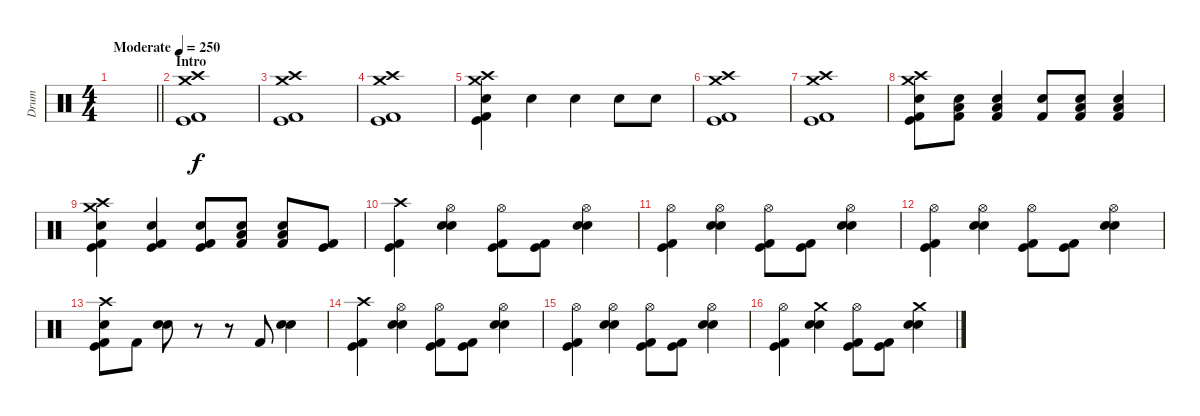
\track ("Drum" "Drum") {instrument percussion}
\staff {score}
\articulation defaults
\ts (4 4)
\tempo (250 "Moderate")
\clef neutral
\barLineRight lightlight
\ks c
|
\section ("" "Intro")
("Crash high (hit)" "Crash medium (hit)" "Kick (hit) 2" "Kick (hit)").1 |
("Crash high (hit)" "Crash medium (hit)" "Kick (hit) 2" "Kick (hit)").1 |
("Crash high (hit)" "Crash medium (hit)" "Kick (hit) 2" "Kick (hit)").1 |
("Crash high (hit)" "Crash medium (hit)" "Electric Snare (hit)" "Kick (hit) 2" "Kick (hit)").4 "Electric Snare (hit)".4 "Electric Snare (hit)".4 "Electric Snare (hit)".8 "Electric Snare (hit)".8 |
("Crash high (hit)" "Crash medium (hit)" "Kick (hit) 2" "Kick (hit)").1 |
("Crash high (hit)" "Crash medium (hit)" "Kick (hit) 2" "Kick (hit)").1 |
("Crash high (hit)" "Crash medium (hit)" "Electric Snare (hit)" "Kick (hit) 2" "Kick (hit)").8 ("Snare (hit)" "Low Floor Tom (hit)" "Kick (hit) 2").8 ("Snare (hit)" "Low Floor Tom (hit)" "Kick (hit) 2").4 ("Electric Snare (hit)" "Kick (hit) 2").8 ("Snare (hit)" "Low Floor Tom (hit)" "Kick (hit) 2").8 ("Snare (hit)" "Low Floor Tom (hit)" "Kick (hit) 2").4 |
("Crash high (hit)" "Crash medium (hit)" "Electric Snare (hit)" "Kick (hit) 2" "Kick (hit)").4 ("Electric Snare (hit)" "Kick (hit) 2" "Kick (hit)").4 ("Electric Snare (hit)" "Kick (hit) 2" "Kick (hit)").8 ("Snare (hit)" "Low Floor Tom (hit)" "Kick (hit) 2").8 ("Snare (hit)" "Low Floor Tom (hit)" "Kick (hit) 2").8 ("Kick (hit) 2" "Kick (hit)").8 |
("Crash high (hit)" "Kick (hit) 2" "Kick (hit)").4 ("Hi-Hat (open)" "Electric Snare (hit)" "Snare (hit) 2").4 ("Hi-Hat (open)" "Kick (hit) 2" "Kick (hit)").8 ("Kick (hit) 2" "Kick (hit)").8 ("Hi-Hat (open)" "Electric Snare (hit)" "Snare (hit) 2").4 |
("Hi-Hat (open)" "Kick (hit) 2" "Kick (hit)").4 ("Hi-Hat (open)" "Electric Snare (hit)" "Snare (hit) 2").4 ("Hi-Hat (open)" "Kick (hit) 2" "Kick (hit)").8 ("Kick (hit) 2" "Kick (hit)").8 ("Hi-Hat (open)" "Electric Snare (hit)" "Snare (hit) 2").4 |
("Hi-Hat (open)" "Kick (hit) 2" "Kick (hit)").4 ("Hi-Hat (open)" "Electric Snare (hit)" "Snare (hit) 2").4 ("Hi-Hat (open)" "Kick (hit) 2" "Kick (hit)").8 ("Kick (hit) 2" "Kick (hit)").8 ("Hi-Hat (open)" "Electric Snare (hit)" "Snare (hit) 2").4 |
("Crash high (hit)" "Electric Snare (hit)" "Kick (hit) 2" "Kick (hit)").8 "Kick (hit) 2".8 ("Electric Snare (hit)" "Snare (hit) 2").8 r.8 r.8 "Kick (hit) 2".8 ("Electric Snare (hit)" "Snare (hit) 2").4 |
("Crash high (hit)" "Kick (hit) 2" "Kick (hit)").4 ("Hi-Hat (open)" "Electric Snare (hit)" "Snare (hit) 2").4 ("Hi-Hat (open)" "Kick (hit) 2" "Kick (hit)").8 ("Kick (hit) 2" "Kick (hit)").8 ("Hi-Hat (open)" "Electric Snare (hit)" "Snare (hit) 2").4 |
("Hi-Hat (open)" "Kick (hit) 2" "Kick (hit)").4 ("Hi-Hat (open)" "Electric Snare (hit)" "Snare (hit) 2").4 ("Hi-Hat (open)" "Kick (hit) 2" "Kick (hit)").8 ("Kick (hit) 2" "Kick (hit)").8 ("Hi-Hat (open)" "Electric Snare (hit)" "Snare (hit) 2").4 |
("Hi-Hat (open)" "Kick (hit) 2" "Kick (hit)").4 ("Crash medium (hit)" "Electric Snare (hit)" "Snare (hit) 2").4 ("Hi-Hat (open)" "Kick (hit) 2" "Kick (hit)").8 ("Kick (hit) 2" "Kick (hit)").8 ("Crash medium (hit)" "Electric Snare (hit)" "Snare (hit) 2").4
